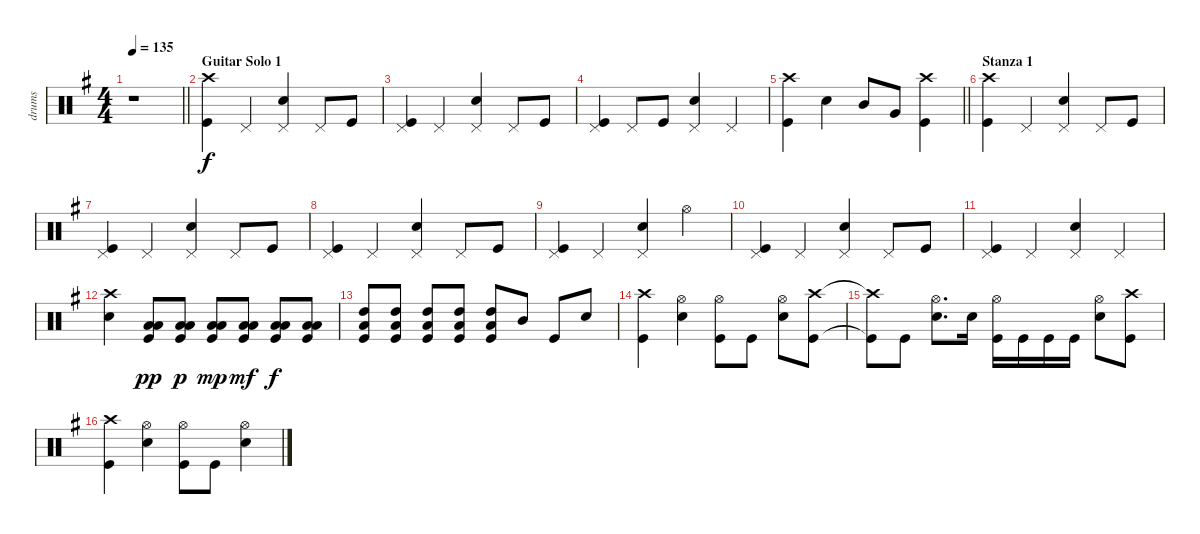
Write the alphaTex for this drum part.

\track ("drums" "drums") {instrument percussion}
\staff {score}
\articulation defaults
\ts (4 4)
\tempo 135
\clef neutral
\barLineRight lightlight
\ks eminor
r.1{dy mp} |
\section ("" "Guitar Solo 1")
("Crash high (hit)" "Kick (hit)").4{dy f} "Pedal Hi-Hat (hit)".4 ("Pedal Hi-Hat (hit)" "Snare (hit) 2").4 "Pedal Hi-Hat (hit)".8 "Kick (hit)".8 |
("Pedal Hi-Hat (hit)" "Kick (hit)").4 "Pedal Hi-Hat (hit)".4 ("Pedal Hi-Hat (hit)" "Snare (hit) 2").4 "Pedal Hi-Hat (hit)".8 "Kick (hit)".8 |
("Pedal Hi-Hat (hit)" "Kick (hit)").4 "Pedal Hi-Hat (hit)".8 "Kick (hit)".8 ("Pedal Hi-Hat (hit)" "Snare (hit) 2").4 "Pedal Hi-Hat (hit)".4 |
\barLineRight lightlight
("Crash high (hit)" "Kick (hit)").4 "Snare (hit) 2".4 "Mid Tom (hit)".8 "Very Low Tom (hit)".8 ("Crash high (hit)" "Kick (hit)").4 |
\section ("" "Stanza 1")
("Crash high (hit)" "Kick (hit)").4 "Pedal Hi-Hat (hit)".4 ("Pedal Hi-Hat (hit)" "Snare (hit) 2").4 "Pedal Hi-Hat (hit)".8 "Kick (hit)".8 |
("Pedal Hi-Hat (hit)" "Kick (hit)").4 "Pedal Hi-Hat (hit)".4 ("Pedal Hi-Hat (hit)" "Snare (hit) 2").4 "Pedal Hi-Hat (hit)".8 "Kick (hit)".8 |
("Pedal Hi-Hat (hit)" "Kick (hit)").4 "Pedal Hi-Hat (hit)".4 ("Pedal Hi-Hat (hit)" "Snare (hit) 2").4 "Pedal Hi-Hat (hit)".8 "Kick (hit)".8 |
("Pedal Hi-Hat (hit)" "Kick (hit)").4 "Pedal Hi-Hat (hit)".4 ("Pedal Hi-Hat (hit)" "Snare (hit) 2").4 "Hi-Hat (open)".4 |
("Pedal Hi-Hat (hit)" "Kick (hit)").4 "Pedal Hi-Hat (hit)".4 ("Pedal Hi-Hat (hit)" "Snare (hit) 2").4 "Pedal Hi-Hat (hit)".8 "Kick (hit)".8 |
("Pedal Hi-Hat (hit)" "Kick (hit)").4 "Pedal Hi-Hat (hit)".4 ("Pedal Hi-Hat (hit)" "Snare (hit) 2").4 "Pedal Hi-Hat (hit)".4 |
("Crash high (hit)" "Snare (hit) 2").4 ("Low Tom (hit)" "Low Floor Tom (hit)" "Kick (hit)").8{dy pp} ("Low Tom (hit)" "Low Floor Tom (hit)" "Kick (hit)").8{dy p} ("Low Tom (hit)" "Low Floor Tom (hit)" "Kick (hit)").8{dy mp} ("Low Tom (hit)" "Low Floor Tom (hit)" "Kick (hit)").8{dy mf} ("Low Tom (hit)" "Low Floor Tom (hit)" "Kick (hit)").8{dy f} ("Low Tom (hit)" "Low Floor Tom (hit)" "Kick (hit)").8 |
("High Tom (hit)" "Low Floor Tom (hit)" "Kick (hit)").8 ("High Tom (hit)" "Low Floor Tom (hit)" "Kick (hit)").8 ("High Tom (hit)" "Low Floor Tom (hit)" "Kick (hit)").8 ("High Tom (hit)" "Low Floor Tom (hit)" "Kick (hit)").8 ("High Tom (hit)" "Low Floor Tom (hit)" "Kick (hit)").8 "Mid Tom (hit)".8 "Kick (hit)".8 "Snare (hit) 2".8 |
("Crash high (hit)" "Kick (hit)").4 ("Hi-Hat (open)" "Snare (hit) 2").4 ("Hi-Hat (open)" "Kick (hit)").8 "Kick (hit)".8 ("Hi-Hat (open)" "Snare (hit) 2").8 ("Crash high (hit)" "Kick (hit)").8 |
("Crash high (hit)"{t} "Kick (hit)"{t}).8 "Kick (hit)".8 ("Hi-Hat (open)" "Snare (hit) 2").8{d} "Snare (hit) 2".16 ("Hi-Hat (open)" "Kick (hit)").16 "Kick (hit)".16 "Kick (hit)".16 "Kick (hit)".16 ("Hi-Hat (open)" "Snare (hit) 2").8 ("Crash high (hit)" "Kick (hit)").8 |
("Crash high (hit)" "Kick (hit)").4 ("Hi-Hat (open)" "Snare (hit) 2").4 ("Hi-Hat (open)" "Kick (hit)").8 "Kick (hit)".8 ("Hi-Hat (open)" "Snare (hit) 2").4
